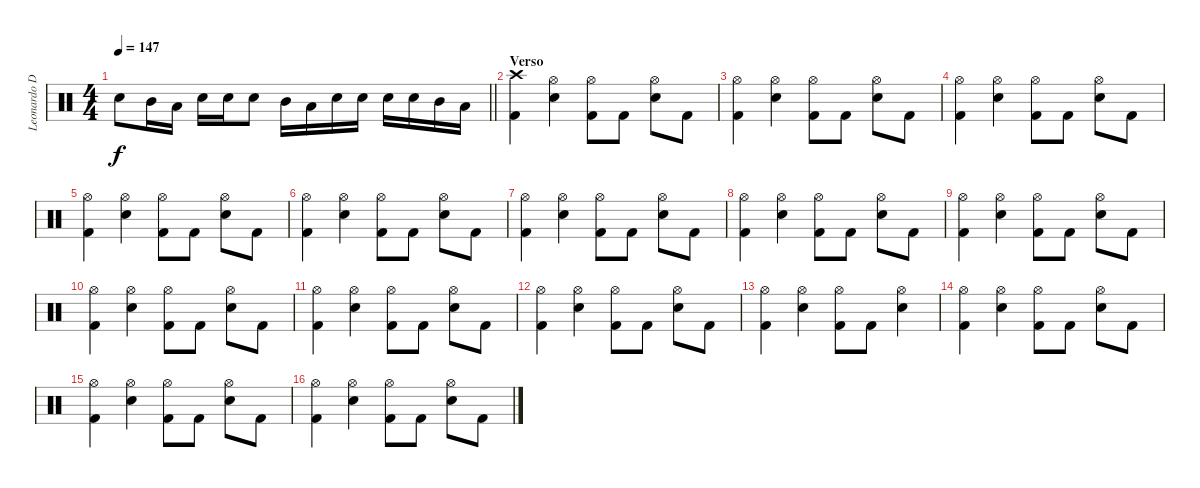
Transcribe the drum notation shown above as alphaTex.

\track ("Leonardo De Cecco" "Leonardo D") {instrument percussion}
\staff {score}
\articulation defaults
\ts (4 4)
\tempo 147
\clef neutral
\barLineRight lightlight
\ks c "Electric Snare (hit)".8{dy f} "Mid Tom (hit)".16 "Low Tom (hit)".16 "Electric Snare (hit)".16 "Electric Snare (hit)".16 "Electric Snare (hit)".8 "Mid Tom (hit)".16 "Low Tom (hit)".16 "Electric Snare (hit)".16 "Electric Snare (hit)".16 "Electric Snare (hit)".16 "Electric Snare (hit)".16 "Mid Tom (hit)".16 "Low Tom (hit)".16
|
\section ("" "Verso")
("Crash high (hit)" "Kick (hit) 2").4 ("Hi-Hat (open)" "Electric Snare (hit)").4 ("Hi-Hat (open)" "Kick (hit) 2").8 "Kick (hit) 2".8 ("Hi-Hat (open)" "Electric Snare (hit)").8 "Kick (hit) 2".8 |
("Hi-Hat (open)" "Kick (hit) 2").4 ("Hi-Hat (open)" "Electric Snare (hit)").4 ("Hi-Hat (open)" "Kick (hit) 2").8 "Kick (hit) 2".8 ("Hi-Hat (open)" "Electric Snare (hit)").8 "Kick (hit) 2".8 |
("Hi-Hat (open)" "Kick (hit) 2").4 ("Hi-Hat (open)" "Electric Snare (hit)").4 ("Hi-Hat (open)" "Kick (hit) 2").8 "Kick (hit) 2".8 ("Hi-Hat (open)" "Electric Snare (hit)").8 "Kick (hit) 2".8 |
("Hi-Hat (open)" "Kick (hit) 2").4 ("Hi-Hat (open)" "Electric Snare (hit)").4 ("Hi-Hat (open)" "Kick (hit) 2").8 "Kick (hit) 2".8 ("Hi-Hat (open)" "Electric Snare (hit)").8 "Kick (hit) 2".8 |
("Hi-Hat (open)" "Kick (hit) 2").4 ("Hi-Hat (open)" "Electric Snare (hit)").4 ("Hi-Hat (open)" "Kick (hit) 2").8 "Kick (hit) 2".8 ("Hi-Hat (open)" "Electric Snare (hit)").8 "Kick (hit) 2".8 |
("Hi-Hat (open)" "Kick (hit) 2").4 ("Hi-Hat (open)" "Electric Snare (hit)").4 ("Hi-Hat (open)" "Kick (hit) 2").8 "Kick (hit) 2".8 ("Hi-Hat (open)" "Electric Snare (hit)").8 "Kick (hit) 2".8 |
("Hi-Hat (open)" "Kick (hit) 2").4 ("Hi-Hat (open)" "Electric Snare (hit)").4 ("Hi-Hat (open)" "Kick (hit) 2").8 "Kick (hit) 2".8 ("Hi-Hat (open)" "Electric Snare (hit)").8 "Kick (hit) 2".8 |
("Hi-Hat (open)" "Kick (hit) 2").4 ("Hi-Hat (open)" "Electric Snare (hit)").4 ("Hi-Hat (open)" "Kick (hit) 2").8 "Kick (hit) 2".8 ("Hi-Hat (open)" "Electric Snare (hit)").8 "Kick (hit) 2".8 |
("Hi-Hat (open)" "Kick (hit) 2").4 ("Hi-Hat (open)" "Electric Snare (hit)").4 ("Hi-Hat (open)" "Kick (hit) 2").8 "Kick (hit) 2".8 ("Hi-Hat (open)" "Electric Snare (hit)").8 "Kick (hit) 2".8 |
("Hi-Hat (open)" "Kick (hit) 2").4 ("Hi-Hat (open)" "Electric Snare (hit)").4 ("Hi-Hat (open)" "Kick (hit) 2").8 "Kick (hit) 2".8 ("Hi-Hat (open)" "Electric Snare (hit)").8 "Kick (hit) 2".8 |
("Hi-Hat (open)" "Kick (hit) 2").4 ("Hi-Hat (open)" "Electric Snare (hit)").4 ("Hi-Hat (open)" "Kick (hit) 2").8 "Kick (hit) 2".8 ("Hi-Hat (open)" "Electric Snare (hit)").8 "Kick (hit) 2".8 |
("Hi-Hat (open)" "Kick (hit) 2").4 ("Hi-Hat (open)" "Electric Snare (hit)").4 ("Hi-Hat (open)" "Kick (hit) 2").8 "Kick (hit) 2".8 ("Hi-Hat (open)" "Electric Snare (hit)").4 |
("Hi-Hat (open)" "Kick (hit) 2").4 ("Hi-Hat (open)" "Electric Snare (hit)").4 ("Hi-Hat (open)" "Kick (hit) 2").8 "Kick (hit) 2".8 ("Hi-Hat (open)" "Electric Snare (hit)").8 "Kick (hit) 2".8 |
("Hi-Hat (open)" "Kick (hit) 2").4 ("Hi-Hat (open)" "Electric Snare (hit)").4 ("Hi-Hat (open)" "Kick (hit) 2").8 "Kick (hit) 2".8 ("Hi-Hat (open)" "Electric Snare (hit)").8 "Kick (hit) 2".8 |
("Hi-Hat (open)" "Kick (hit) 2").4 ("Hi-Hat (open)" "Electric Snare (hit)").4 ("Hi-Hat (open)" "Kick (hit) 2").8 "Kick (hit) 2".8 ("Hi-Hat (open)" "Electric Snare (hit)").8 "Kick (hit) 2".8
